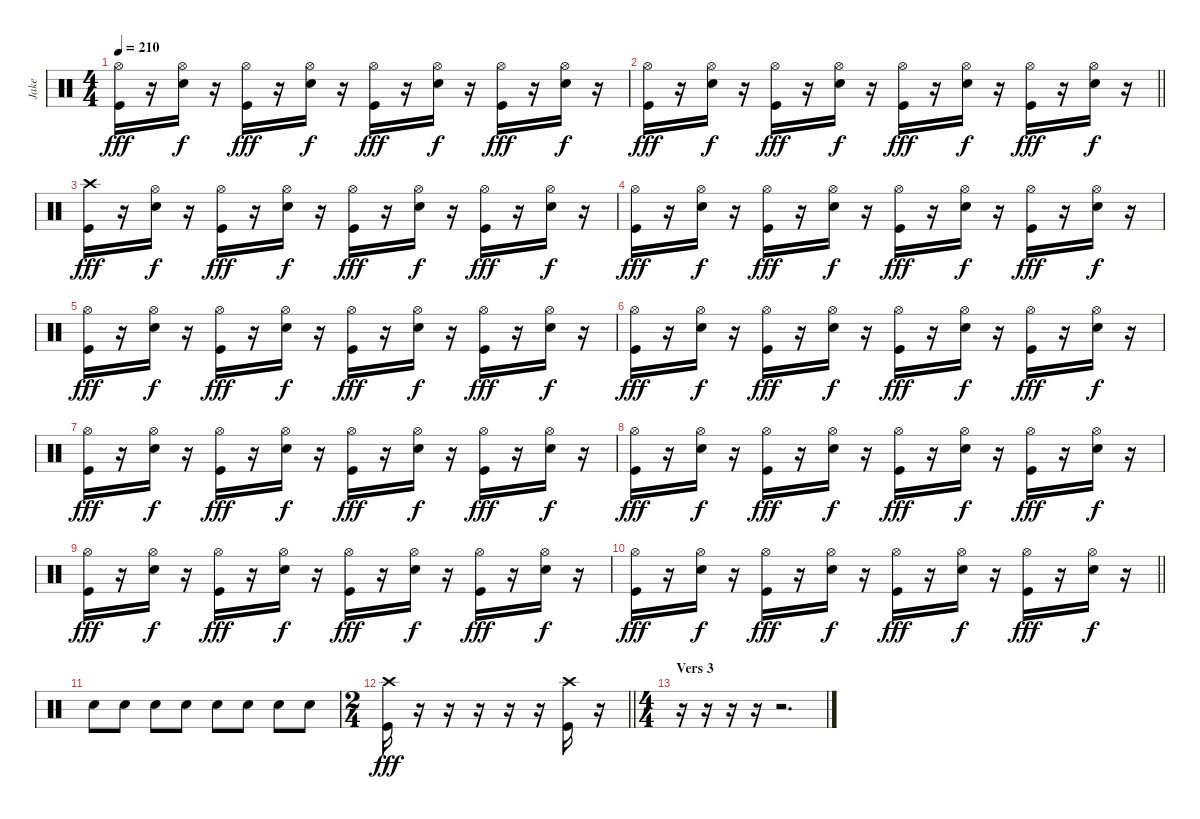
\track ("Jake" "Jake") {instrument percussion}
\staff {score}
\articulation defaults
\ts (4 4)
\tempo 210
\clef neutral
\ks c
("Hi-Hat (open)" "Kick (hit)").16{dy fff} r.16 ("Hi-Hat (open)" "Electric Snare (hit)").16{dy f} r.16 ("Hi-Hat (open)" "Kick (hit)").16{dy fff} r.16 ("Hi-Hat (open)" "Electric Snare (hit)").16{dy f} r.16 ("Hi-Hat (open)" "Kick (hit)").16{dy fff} r.16 ("Hi-Hat (open)" "Electric Snare (hit)").16{dy f} r.16 ("Hi-Hat (open)" "Kick (hit)").16{dy fff} r.16 ("Hi-Hat (open)" "Electric Snare (hit)").16{dy f} r.16 |
\barLineRight lightlight
("Hi-Hat (open)" "Kick (hit)").16{dy fff} r.16 ("Hi-Hat (open)" "Electric Snare (hit)").16{dy f} r.16 ("Hi-Hat (open)" "Kick (hit)").16{dy fff} r.16 ("Hi-Hat (open)" "Electric Snare (hit)").16{dy f} r.16 ("Hi-Hat (open)" "Kick (hit)").16{dy fff} r.16 ("Hi-Hat (open)" "Electric Snare (hit)").16{dy f} r.16 ("Hi-Hat (open)" "Kick (hit)").16{dy fff} r.16 ("Hi-Hat (open)" "Electric Snare (hit)").16{dy f} r.16 |
("Crash high (hit)" "Kick (hit)").16{dy fff} r.16 ("Hi-Hat (open)" "Electric Snare (hit)").16{dy f} r.16 ("Hi-Hat (open)" "Kick (hit)").16{dy fff} r.16 ("Hi-Hat (open)" "Electric Snare (hit)").16{dy f} r.16 ("Hi-Hat (open)" "Kick (hit)").16{dy fff} r.16 ("Hi-Hat (open)" "Electric Snare (hit)").16{dy f} r.16 ("Hi-Hat (open)" "Kick (hit)").16{dy fff} r.16 ("Hi-Hat (open)" "Electric Snare (hit)").16{dy f} r.16 |
("Hi-Hat (open)" "Kick (hit)").16{dy fff} r.16 ("Hi-Hat (open)" "Electric Snare (hit)").16{dy f} r.16 ("Hi-Hat (open)" "Kick (hit)").16{dy fff} r.16 ("Hi-Hat (open)" "Electric Snare (hit)").16{dy f} r.16 ("Hi-Hat (open)" "Kick (hit)").16{dy fff} r.16 ("Hi-Hat (open)" "Electric Snare (hit)").16{dy f} r.16 ("Hi-Hat (open)" "Kick (hit)").16{dy fff} r.16 ("Hi-Hat (open)" "Electric Snare (hit)").16{dy f} r.16 |
("Hi-Hat (open)" "Kick (hit)").16{dy fff} r.16 ("Hi-Hat (open)" "Electric Snare (hit)").16{dy f} r.16 ("Hi-Hat (open)" "Kick (hit)").16{dy fff} r.16 ("Hi-Hat (open)" "Electric Snare (hit)").16{dy f} r.16 ("Hi-Hat (open)" "Kick (hit)").16{dy fff} r.16 ("Hi-Hat (open)" "Electric Snare (hit)").16{dy f} r.16 ("Hi-Hat (open)" "Kick (hit)").16{dy fff} r.16 ("Hi-Hat (open)" "Electric Snare (hit)").16{dy f} r.16 |
("Hi-Hat (open)" "Kick (hit)").16{dy fff} r.16 ("Hi-Hat (open)" "Electric Snare (hit)").16{dy f} r.16 ("Hi-Hat (open)" "Kick (hit)").16{dy fff} r.16 ("Hi-Hat (open)" "Electric Snare (hit)").16{dy f} r.16 ("Hi-Hat (open)" "Kick (hit)").16{dy fff} r.16 ("Hi-Hat (open)" "Electric Snare (hit)").16{dy f} r.16 ("Hi-Hat (open)" "Kick (hit)").16{dy fff} r.16 ("Hi-Hat (open)" "Electric Snare (hit)").16{dy f} r.16 |
("Hi-Hat (open)" "Kick (hit)").16{dy fff} r.16 ("Hi-Hat (open)" "Electric Snare (hit)").16{dy f} r.16 ("Hi-Hat (open)" "Kick (hit)").16{dy fff} r.16 ("Hi-Hat (open)" "Electric Snare (hit)").16{dy f} r.16 ("Hi-Hat (open)" "Kick (hit)").16{dy fff} r.16 ("Hi-Hat (open)" "Electric Snare (hit)").16{dy f} r.16 ("Hi-Hat (open)" "Kick (hit)").16{dy fff} r.16 ("Hi-Hat (open)" "Electric Snare (hit)").16{dy f} r.16 |
("Hi-Hat (open)" "Kick (hit)").16{dy fff} r.16 ("Hi-Hat (open)" "Electric Snare (hit)").16{dy f} r.16 ("Hi-Hat (open)" "Kick (hit)").16{dy fff} r.16 ("Hi-Hat (open)" "Electric Snare (hit)").16{dy f} r.16 ("Hi-Hat (open)" "Kick (hit)").16{dy fff} r.16 ("Hi-Hat (open)" "Electric Snare (hit)").16{dy f} r.16 ("Hi-Hat (open)" "Kick (hit)").16{dy fff} r.16 ("Hi-Hat (open)" "Electric Snare (hit)").16{dy f} r.16 |
("Hi-Hat (open)" "Kick (hit)").16{dy fff} r.16 ("Hi-Hat (open)" "Electric Snare (hit)").16{dy f} r.16 ("Hi-Hat (open)" "Kick (hit)").16{dy fff} r.16 ("Hi-Hat (open)" "Electric Snare (hit)").16{dy f} r.16 ("Hi-Hat (open)" "Kick (hit)").16{dy fff} r.16 ("Hi-Hat (open)" "Electric Snare (hit)").16{dy f} r.16 ("Hi-Hat (open)" "Kick (hit)").16{dy fff} r.16 ("Hi-Hat (open)" "Electric Snare (hit)").16{dy f} r.16 |
\barLineRight lightlight
("Hi-Hat (open)" "Kick (hit)").16{dy fff} r.16 ("Hi-Hat (open)" "Electric Snare (hit)").16{dy f} r.16 ("Hi-Hat (open)" "Kick (hit)").16{dy fff} r.16 ("Hi-Hat (open)" "Electric Snare (hit)").16{dy f} r.16 ("Hi-Hat (open)" "Kick (hit)").16{dy fff} r.16 ("Hi-Hat (open)" "Electric Snare (hit)").16{dy f} r.16 ("Hi-Hat (open)" "Kick (hit)").16{dy fff} r.16 ("Hi-Hat (open)" "Electric Snare (hit)").16{dy f} r.16 |
"Electric Snare (hit)".8 "Electric Snare (hit)".8 "Electric Snare (hit)".8 "Electric Snare (hit)".8 "Electric Snare (hit)".8 "Electric Snare (hit)".8 "Electric Snare (hit)".8 "Electric Snare (hit)".8 |
\ts (2 4)
\barLineRight lightlight
("Crash high (hit)" "Kick (hit)").16{dy fff} r.16 r.16 r.16 r.16 r.16 ("Crash high (hit)" "Kick (hit)").16 r.16 |
\ts (4 4)
\section ("" "Vers 3")
r.16 r.16 r.16 r.16 r.2{d}
